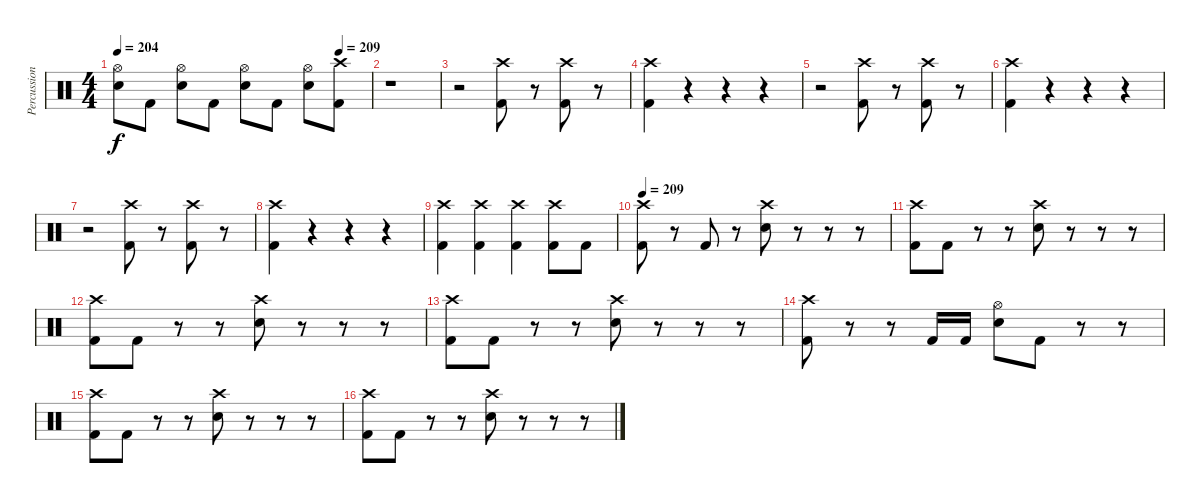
\track ("Percussion" "Percussion") {instrument percussion}
\staff {score}
\articulation defaults
\ts (4 4)
\tempo 204
\tempo (209 0.875)
\clef neutral
\ks c
("Hi-Hat (open)" "Electric Snare (hit)").8{dy f} "Kick (hit) 2".8 ("Hi-Hat (open)" "Electric Snare (hit)").8 "Kick (hit) 2".8 ("Hi-Hat (open)" "Electric Snare (hit)").8 "Kick (hit) 2".8 ("Hi-Hat (open)" "Electric Snare (hit)").8 ("Crash high (hit)" "Kick (hit) 2").8 |
r.1 |
r.2 ("Crash high (hit)" "Kick (hit) 2").8 r.8 ("Crash high (hit)" "Kick (hit) 2").8 r.8 |
("Crash high (hit)" "Kick (hit) 2").4 r.4 r.4 r.4 |
r.2 ("Crash high (hit)" "Kick (hit) 2").8 r.8 ("Crash high (hit)" "Kick (hit) 2").8 r.8 |
("Crash high (hit)" "Kick (hit) 2").4 r.4 r.4 r.4 |
r.2 ("Crash high (hit)" "Kick (hit) 2").8 r.8 ("Crash high (hit)" "Kick (hit) 2").8 r.8 |
("Crash high (hit)" "Kick (hit) 2").4 r.4 r.4 r.4 |
("Crash high (hit)" "Kick (hit) 2").4 ("Crash high (hit)" "Kick (hit) 2").4 ("Crash high (hit)" "Kick (hit) 2").4 ("Crash high (hit)" "Kick (hit) 2").8 "Kick (hit) 2".8 |
\tempo 209
("Crash high (hit)" "Kick (hit) 2").8 r.8 "Kick (hit) 2".8 r.8 ("Crash high (hit)" "Electric Snare (hit)").8 r.8 r.8 r.8 |
("Crash high (hit)" "Kick (hit) 2").8 "Kick (hit) 2".8 r.8 r.8 ("Crash high (hit)" "Electric Snare (hit)").8 r.8 r.8 r.8 |
("Crash high (hit)" "Kick (hit) 2").8 "Kick (hit) 2".8 r.8 r.8 ("Crash high (hit)" "Electric Snare (hit)").8 r.8 r.8 r.8 |
("Crash high (hit)" "Kick (hit) 2").8 "Kick (hit) 2".8 r.8 r.8 ("Crash high (hit)" "Electric Snare (hit)").8 r.8 r.8 r.8 |
("Crash high (hit)" "Kick (hit) 2").8 r.8 r.8 "Kick (hit) 2".16 "Kick (hit) 2".16 ("Hi-Hat (open)" "Electric Snare (hit)").8 "Kick (hit) 2".8 r.8 r.8 |
("Crash high (hit)" "Kick (hit) 2").8 "Kick (hit) 2".8 r.8 r.8 ("Crash high (hit)" "Electric Snare (hit)").8 r.8 r.8 r.8 |
("Crash high (hit)" "Kick (hit) 2").8 "Kick (hit) 2".8 r.8 r.8 ("Crash high (hit)" "Electric Snare (hit)").8 r.8 r.8 r.8
